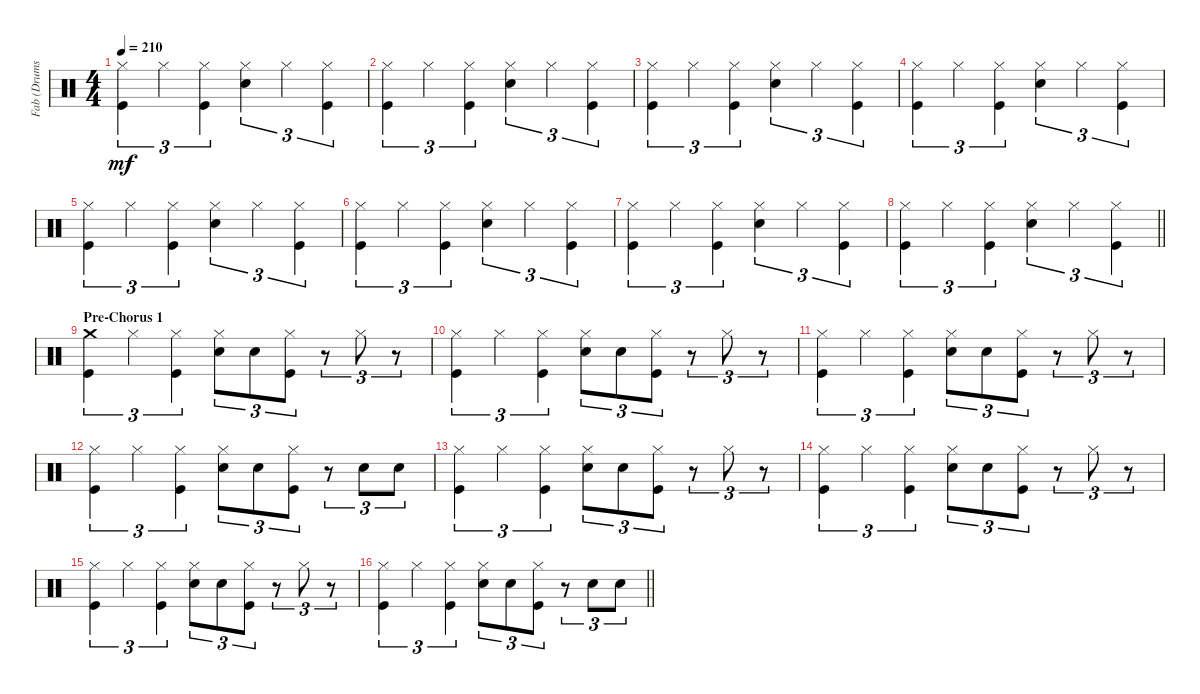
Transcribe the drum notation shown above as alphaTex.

\track ("Fab (Drums)" "Fab (Drums") {instrument percussion}
\staff {score}
\articulation defaults
\ts (4 4)
\tempo 210
\clef neutral
\ks c
("Kick (hit)" "Hi-Hat (closed)").4{tu (3 2) dy mf} "Hi-Hat (closed)".4{tu (3 2)} ("Hi-Hat (closed)" "Kick (hit)").4{tu (3 2)} ("Hi-Hat (closed)" "Snare (hit) 2").4{tu (3 2)} "Hi-Hat (closed)".4{tu (3 2)} ("Hi-Hat (closed)" "Kick (hit)").4{tu (3 2)} |
("Kick (hit)" "Hi-Hat (closed)").4{tu (3 2)} "Hi-Hat (closed)".4{tu (3 2)} ("Hi-Hat (closed)" "Kick (hit)").4{tu (3 2)} ("Hi-Hat (closed)" "Snare (hit) 2").4{tu (3 2)} "Hi-Hat (closed)".4{tu (3 2)} ("Hi-Hat (closed)" "Kick (hit)").4{tu (3 2)} |
("Kick (hit)" "Hi-Hat (closed)").4{tu (3 2)} "Hi-Hat (closed)".4{tu (3 2)} ("Hi-Hat (closed)" "Kick (hit)").4{tu (3 2)} ("Hi-Hat (closed)" "Snare (hit) 2").4{tu (3 2)} "Hi-Hat (closed)".4{tu (3 2)} ("Hi-Hat (closed)" "Kick (hit)").4{tu (3 2)} |
("Kick (hit)" "Hi-Hat (closed)").4{tu (3 2)} "Hi-Hat (closed)".4{tu (3 2)} ("Hi-Hat (closed)" "Kick (hit)").4{tu (3 2)} ("Hi-Hat (closed)" "Snare (hit) 2").4{tu (3 2)} "Hi-Hat (closed)".4{tu (3 2)} ("Hi-Hat (closed)" "Kick (hit)").4{tu (3 2)} |
("Kick (hit)" "Hi-Hat (closed)").4{tu (3 2)} "Hi-Hat (closed)".4{tu (3 2)} ("Hi-Hat (closed)" "Kick (hit)").4{tu (3 2)} ("Hi-Hat (closed)" "Snare (hit) 2").4{tu (3 2)} "Hi-Hat (closed)".4{tu (3 2)} ("Hi-Hat (closed)" "Kick (hit)").4{tu (3 2)} |
("Kick (hit)" "Hi-Hat (closed)").4{tu (3 2)} "Hi-Hat (closed)".4{tu (3 2)} ("Hi-Hat (closed)" "Kick (hit)").4{tu (3 2)} ("Hi-Hat (closed)" "Snare (hit) 2").4{tu (3 2)} "Hi-Hat (closed)".4{tu (3 2)} ("Hi-Hat (closed)" "Kick (hit)").4{tu (3 2)} |
("Kick (hit)" "Hi-Hat (closed)").4{tu (3 2)} "Hi-Hat (closed)".4{tu (3 2)} ("Hi-Hat (closed)" "Kick (hit)").4{tu (3 2)} ("Hi-Hat (closed)" "Snare (hit) 2").4{tu (3 2)} "Hi-Hat (closed)".4{tu (3 2)} ("Hi-Hat (closed)" "Kick (hit)").4{tu (3 2)} |
\barLineRight lightlight
("Kick (hit)" "Hi-Hat (closed)").4{tu (3 2)} "Hi-Hat (closed)".4{tu (3 2)} ("Hi-Hat (closed)" "Kick (hit)").4{tu (3 2)} ("Hi-Hat (closed)" "Snare (hit) 2").4{tu (3 2)} "Hi-Hat (closed)".4{tu (3 2)} ("Hi-Hat (closed)" "Kick (hit)").4{tu (3 2)} |
\section ("" "Pre-Chorus 1")
("Kick (hit)" "Crash medium (hit)").4{tu (3 2)} "Hi-Hat (closed)".4{tu (3 2)} ("Hi-Hat (closed)" "Kick (hit)").4{tu (3 2)} ("Hi-Hat (closed)" "Snare (hit) 2").8{tu (3 2)} "Snare (hit) 2".8{tu (3 2)} ("Hi-Hat (closed)" "Kick (hit)").8{tu (3 2)} r.8{tu (3 2)} "Hi-Hat (closed)".8{tu (3 2)} r.8{tu (3 2)} |
("Kick (hit)" "Hi-Hat (closed)").4{tu (3 2)} "Hi-Hat (closed)".4{tu (3 2)} ("Hi-Hat (closed)" "Kick (hit)").4{tu (3 2)} ("Hi-Hat (closed)" "Snare (hit) 2").8{tu (3 2)} "Snare (hit) 2".8{tu (3 2)} ("Hi-Hat (closed)" "Kick (hit)").8{tu (3 2)} r.8{tu (3 2)} "Hi-Hat (closed)".8{tu (3 2)} r.8{tu (3 2)} |
("Kick (hit)" "Hi-Hat (closed)").4{tu (3 2)} "Hi-Hat (closed)".4{tu (3 2)} ("Hi-Hat (closed)" "Kick (hit)").4{tu (3 2)} ("Hi-Hat (closed)" "Snare (hit) 2").8{tu (3 2)} "Snare (hit) 2".8{tu (3 2)} ("Hi-Hat (closed)" "Kick (hit)").8{tu (3 2)} r.8{tu (3 2)} "Hi-Hat (closed)".8{tu (3 2)} r.8{tu (3 2)} |
("Kick (hit)" "Hi-Hat (closed)").4{tu (3 2)} "Hi-Hat (closed)".4{tu (3 2)} ("Hi-Hat (closed)" "Kick (hit)").4{tu (3 2)} ("Hi-Hat (closed)" "Snare (hit) 2").8{tu (3 2)} "Snare (hit) 2".8{tu (3 2)} ("Hi-Hat (closed)" "Kick (hit)").8{tu (3 2)} r.8{tu (3 2)} "Snare (hit) 2".8{tu (3 2)} "Snare (hit) 2".8{tu (3 2)} |
("Kick (hit)" "Hi-Hat (closed)").4{tu (3 2)} "Hi-Hat (closed)".4{tu (3 2)} ("Hi-Hat (closed)" "Kick (hit)").4{tu (3 2)} ("Hi-Hat (closed)" "Snare (hit) 2").8{tu (3 2)} "Snare (hit) 2".8{tu (3 2)} ("Hi-Hat (closed)" "Kick (hit)").8{tu (3 2)} r.8{tu (3 2)} "Hi-Hat (closed)".8{tu (3 2)} r.8{tu (3 2)} |
("Kick (hit)" "Hi-Hat (closed)").4{tu (3 2)} "Hi-Hat (closed)".4{tu (3 2)} ("Hi-Hat (closed)" "Kick (hit)").4{tu (3 2)} ("Hi-Hat (closed)" "Snare (hit) 2").8{tu (3 2)} "Snare (hit) 2".8{tu (3 2)} ("Hi-Hat (closed)" "Kick (hit)").8{tu (3 2)} r.8{tu (3 2)} "Hi-Hat (closed)".8{tu (3 2)} r.8{tu (3 2)} |
("Kick (hit)" "Hi-Hat (closed)").4{tu (3 2)} "Hi-Hat (closed)".4{tu (3 2)} ("Hi-Hat (closed)" "Kick (hit)").4{tu (3 2)} ("Hi-Hat (closed)" "Snare (hit) 2").8{tu (3 2)} "Snare (hit) 2".8{tu (3 2)} ("Hi-Hat (closed)" "Kick (hit)").8{tu (3 2)} r.8{tu (3 2)} "Hi-Hat (closed)".8{tu (3 2)} r.8{tu (3 2)} |
\barLineRight lightlight
("Kick (hit)" "Hi-Hat (closed)").4{tu (3 2)} "Hi-Hat (closed)".4{tu (3 2)} ("Hi-Hat (closed)" "Kick (hit)").4{tu (3 2)} ("Hi-Hat (closed)" "Snare (hit) 2").8{tu (3 2)} "Snare (hit) 2".8{tu (3 2)} ("Hi-Hat (closed)" "Kick (hit)").8{tu (3 2)} r.8{tu (3 2)} "Snare (hit) 2".8{tu (3 2)} "Snare (hit) 2".8{tu (3 2)}
